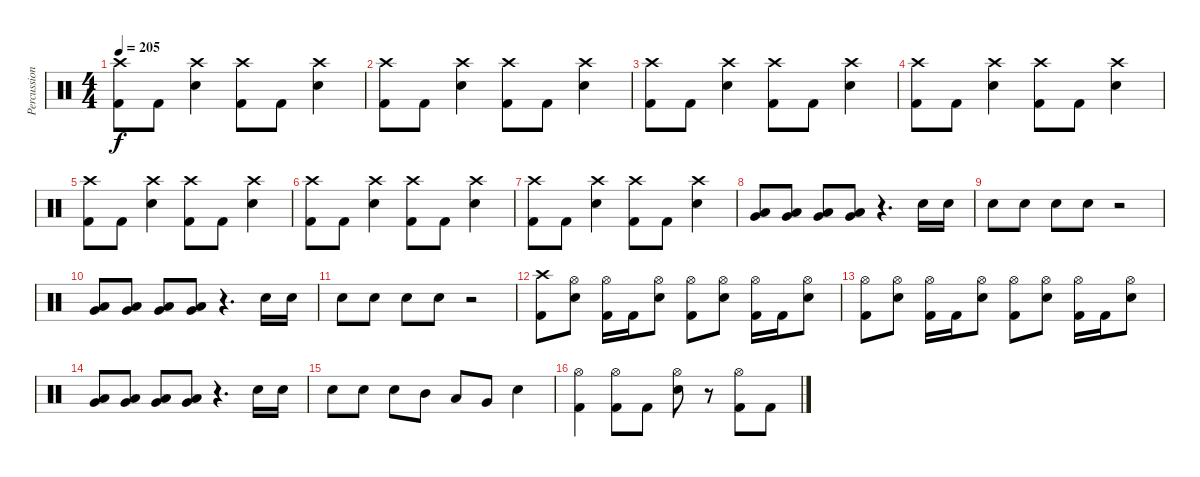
\track ("Percussions" "Percussion") {instrument percussion}
\staff {score}
\articulation defaults
\ts (4 4)
\tempo 205
\clef neutral
\ks c
("Crash high (hit)" "Kick (hit) 2").8{dy f} "Kick (hit) 2".8 ("Crash high (hit)" "Snare (hit) 2").4 ("Crash high (hit)" "Kick (hit) 2").8 "Kick (hit) 2".8 ("Crash high (hit)" "Snare (hit) 2").4 |
("Crash high (hit)" "Kick (hit) 2").8 "Kick (hit) 2".8 ("Crash high (hit)" "Snare (hit) 2").4 ("Crash high (hit)" "Kick (hit) 2").8 "Kick (hit) 2".8 ("Crash high (hit)" "Snare (hit) 2").4 |
("Crash high (hit)" "Kick (hit) 2").8 "Kick (hit) 2".8 ("Crash high (hit)" "Snare (hit) 2").4 ("Crash high (hit)" "Kick (hit) 2").8 "Kick (hit) 2".8 ("Crash high (hit)" "Snare (hit) 2").4 |
("Crash high (hit)" "Kick (hit) 2").8 "Kick (hit) 2".8 ("Crash high (hit)" "Snare (hit) 2").4 ("Crash high (hit)" "Kick (hit) 2").8 "Kick (hit) 2".8 ("Crash high (hit)" "Snare (hit) 2").4 |
("Crash high (hit)" "Kick (hit) 2").8 "Kick (hit) 2".8 ("Crash high (hit)" "Snare (hit) 2").4 ("Crash high (hit)" "Kick (hit) 2").8 "Kick (hit) 2".8 ("Crash high (hit)" "Snare (hit) 2").4 |
("Crash high (hit)" "Kick (hit) 2").8 "Kick (hit) 2".8 ("Crash high (hit)" "Snare (hit) 2").4 ("Crash high (hit)" "Kick (hit) 2").8 "Kick (hit) 2".8 ("Crash high (hit)" "Snare (hit) 2").4 |
("Crash high (hit)" "Kick (hit) 2").8 "Kick (hit) 2".8 ("Crash high (hit)" "Snare (hit) 2").4 ("Crash high (hit)" "Kick (hit) 2").8 "Kick (hit) 2".8 ("Crash high (hit)" "Snare (hit) 2").4 |
("Very Low Tom (hit)" "Low Tom (hit)").8 ("Very Low Tom (hit)" "Low Tom (hit)").8 ("Very Low Tom (hit)" "Low Tom (hit)").8 ("Very Low Tom (hit)" "Low Tom (hit)").8 r.4{d} "Snare (hit) 2".16 "Snare (hit) 2".16 |
"Snare (hit) 2".8 "Snare (hit) 2".8 "Snare (hit) 2".8 "Snare (hit) 2".8 r.2 |
("Very Low Tom (hit)" "Low Tom (hit)").8 ("Very Low Tom (hit)" "Low Tom (hit)").8 ("Very Low Tom (hit)" "Low Tom (hit)").8 ("Very Low Tom (hit)" "Low Tom (hit)").8 r.4{d} "Snare (hit) 2".16 "Snare (hit) 2".16 |
"Snare (hit) 2".8 "Snare (hit) 2".8 "Snare (hit) 2".8 "Snare (hit) 2".8 r.2 |
("Crash high (hit)" "Kick (hit) 2").8 ("Hi-Hat (open)" "Snare (hit) 2").8 ("Hi-Hat (open)" "Kick (hit) 2").16 "Kick (hit) 2".16 ("Hi-Hat (open)" "Snare (hit) 2").8 ("Hi-Hat (open)" "Kick (hit) 2").8 ("Hi-Hat (open)" "Snare (hit) 2").8 ("Hi-Hat (open)" "Kick (hit) 2").16 "Kick (hit) 2".16 ("Hi-Hat (open)" "Snare (hit) 2").8 |
("Hi-Hat (open)" "Kick (hit) 2").8 ("Hi-Hat (open)" "Snare (hit) 2").8 ("Hi-Hat (open)" "Kick (hit) 2").16 "Kick (hit) 2".16 ("Hi-Hat (open)" "Snare (hit) 2").8 ("Hi-Hat (open)" "Kick (hit) 2").8 ("Hi-Hat (open)" "Snare (hit) 2").8 ("Hi-Hat (open)" "Kick (hit) 2").16 "Kick (hit) 2".16 ("Hi-Hat (open)" "Snare (hit) 2").8 |
("Very Low Tom (hit)" "Low Tom (hit)").8 ("Very Low Tom (hit)" "Low Tom (hit)").8 ("Very Low Tom (hit)" "Low Tom (hit)").8 ("Very Low Tom (hit)" "Low Tom (hit)").8 r.4{d} "Snare (hit) 2".16 "Snare (hit) 2".16 |
"Snare (hit) 2".8 "Snare (hit) 2".8 "Snare (hit) 2".8 "Mid Tom (hit)".8 "Low Tom (hit)".8 "Very Low Tom (hit)".8 "Snare (hit) 2".4 |
("Hi-Hat (open)" "Kick (hit) 2").4 ("Hi-Hat (open)" "Kick (hit) 2").8 "Kick (hit) 2".8 ("Hi-Hat (open)" "Snare (hit) 2").8 r.8 ("Hi-Hat (open)" "Kick (hit) 2").8 "Kick (hit) 2".8
